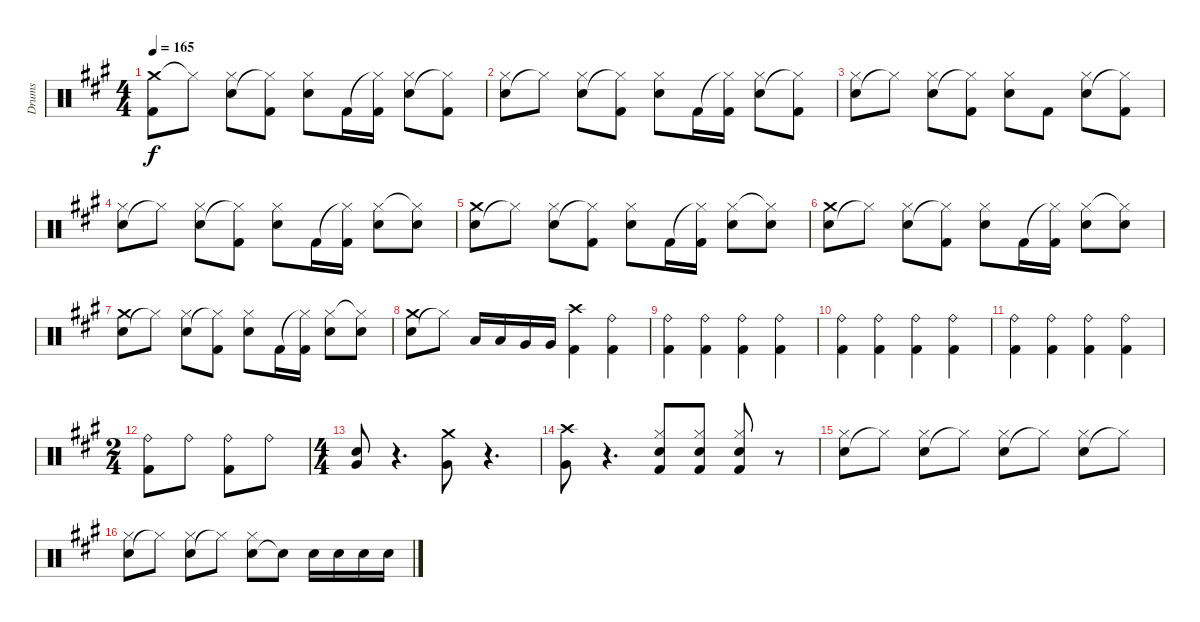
\track ("Drums" "Drums") {instrument percussion}
\staff {score}
\articulation defaults
\ts (4 4)
\tempo 165
\clef neutral
\ks a
("Crash medium (hit)" "Kick (hit) 2").8{dy f} "Hi-Hat (closed)"{t}.8 ("Electric Snare (hit)" "Hi-Hat (closed)").8 ("Hi-Hat (closed)"{t} "Kick (hit) 2").8 ("Electric Snare (hit)" "Hi-Hat (closed)").8 "Kick (hit) 2".16 ("Hi-Hat (closed)"{t} "Kick (hit) 2").16 ("Electric Snare (hit)" "Hi-Hat (closed)").8 ("Hi-Hat (closed)"{t} "Kick (hit) 2").8 |
("Electric Snare (hit)" "Hi-Hat (closed)").8 "Hi-Hat (closed)"{t}.8 ("Electric Snare (hit)" "Hi-Hat (closed)").8 ("Hi-Hat (closed)"{t} "Kick (hit) 2").8 ("Electric Snare (hit)" "Hi-Hat (closed)").8 "Kick (hit) 2".16 ("Hi-Hat (closed)"{t} "Kick (hit) 2").16 ("Electric Snare (hit)" "Hi-Hat (closed)").8 ("Hi-Hat (closed)"{t} "Kick (hit) 2").8 |
("Electric Snare (hit)" "Hi-Hat (closed)").8 "Hi-Hat (closed)"{t}.8 ("Electric Snare (hit)" "Hi-Hat (closed)").8 ("Hi-Hat (closed)"{t} "Kick (hit) 2").8 ("Electric Snare (hit)" "Hi-Hat (closed)").8 "Kick (hit) 2".8 ("Electric Snare (hit)" "Hi-Hat (closed)").8 ("Hi-Hat (closed)"{t} "Kick (hit) 2").8 |
("Electric Snare (hit)" "Hi-Hat (closed)").8 "Hi-Hat (closed)"{t}.8 ("Electric Snare (hit)" "Hi-Hat (closed)").8 ("Hi-Hat (closed)"{t} "Kick (hit) 2").8 ("Electric Snare (hit)" "Hi-Hat (closed)").8 "Kick (hit) 2".16 ("Hi-Hat (closed)"{t} "Kick (hit) 2").16 ("Electric Snare (hit)" "Hi-Hat (closed)").8 ("Electric Snare (hit)" "Hi-Hat (closed)"{t}).8 |
("Electric Snare (hit)" "Crash medium (hit)").8 "Hi-Hat (closed)"{t}.8 ("Electric Snare (hit)" "Hi-Hat (closed)").8 ("Hi-Hat (closed)"{t} "Kick (hit) 2").8 ("Electric Snare (hit)" "Hi-Hat (closed)").8 "Kick (hit) 2".16 ("Hi-Hat (closed)"{t} "Kick (hit) 2").16 ("Electric Snare (hit)" "Hi-Hat (closed)").8 ("Electric Snare (hit)" "Hi-Hat (closed)"{t}).8 |
("Electric Snare (hit)" "Crash medium (hit)").8 "Hi-Hat (closed)"{t}.8 ("Electric Snare (hit)" "Hi-Hat (closed)").8 ("Hi-Hat (closed)"{t} "Kick (hit) 2").8 ("Electric Snare (hit)" "Hi-Hat (closed)").8 "Kick (hit) 2".16 ("Hi-Hat (closed)"{t} "Kick (hit) 2").16 ("Electric Snare (hit)" "Hi-Hat (closed)").8 ("Electric Snare (hit)" "Hi-Hat (closed)"{t}).8 |
("Electric Snare (hit)" "Crash medium (hit)").8 "Hi-Hat (closed)"{t}.8 ("Electric Snare (hit)" "Hi-Hat (closed)").8 ("Hi-Hat (closed)"{t} "Kick (hit) 2").8 ("Electric Snare (hit)" "Hi-Hat (closed)").8 "Kick (hit) 2".16 ("Hi-Hat (closed)"{t} "Kick (hit) 2").16 ("Electric Snare (hit)" "Hi-Hat (closed)").8 ("Electric Snare (hit)" "Hi-Hat (closed)"{t}).8 |
("Electric Snare (hit)" "Crash medium (hit)").8 "Hi-Hat (closed)"{t}.8 "Low Tom (hit)".16 "Low Tom (hit)".16 "Very Low Tom (hit)".16 "Very Low Tom (hit)".16 ("Crash high (hit)" "Kick (hit) 2").4 ("Ride (bell)" "Kick (hit) 2").4 |
("Ride (bell)" "Kick (hit) 2").4 ("Ride (bell)" "Kick (hit) 2").4 ("Ride (bell)" "Kick (hit) 2").4 ("Ride (bell)" "Kick (hit) 2").4 |
("Ride (bell)" "Kick (hit) 2").4 ("Ride (bell)" "Kick (hit) 2").4 ("Ride (bell)" "Kick (hit) 2").4 ("Ride (bell)" "Kick (hit) 2").4 |
("Ride (bell)" "Kick (hit) 2").4 ("Ride (bell)" "Kick (hit) 2").4 ("Ride (bell)" "Kick (hit) 2").4 ("Ride (bell)" "Kick (hit) 2").4 |
\ts (2 4)
("Ride (bell)" "Kick (hit) 2").8 "Ride (bell)".8 ("Ride (bell)" "Kick (hit) 2").8 "Ride (bell)".8 |
\ts (4 4)
("Very Low Tom (hit)" "Electric Snare (hit)").8 r.4{d} ("Crash medium (hit)" "Very Low Tom (hit)").8 r.4{d} |
("Crash high (hit)" "Very Low Tom (hit)").8 r.4{d} ("Electric Snare (hit)" "Hi-Hat (closed)" "Kick (hit) 2").8 ("Electric Snare (hit)" "Hi-Hat (closed)" "Kick (hit) 2").8 ("Electric Snare (hit)" "Hi-Hat (closed)" "Kick (hit) 2").8 r.8 |
("Electric Snare (hit)" "Hi-Hat (closed)").8 "Hi-Hat (closed)"{t}.8 ("Electric Snare (hit)" "Hi-Hat (closed)").8 "Hi-Hat (closed)"{t}.8 ("Electric Snare (hit)" "Hi-Hat (closed)").8 "Hi-Hat (closed)"{t}.8 ("Electric Snare (hit)" "Hi-Hat (closed)").8 "Hi-Hat (closed)"{t}.8 |
("Electric Snare (hit)" "Hi-Hat (closed)").8 "Hi-Hat (closed)"{t}.8 ("Electric Snare (hit)" "Hi-Hat (closed)").8 "Hi-Hat (closed)"{t}.8 ("Electric Snare (hit)" "Hi-Hat (closed)").8 "Snare (hit)"{t}.8 "Electric Snare (hit)".16 "Electric Snare (hit)".16 "Electric Snare (hit)".16 "Electric Snare (hit)".16
